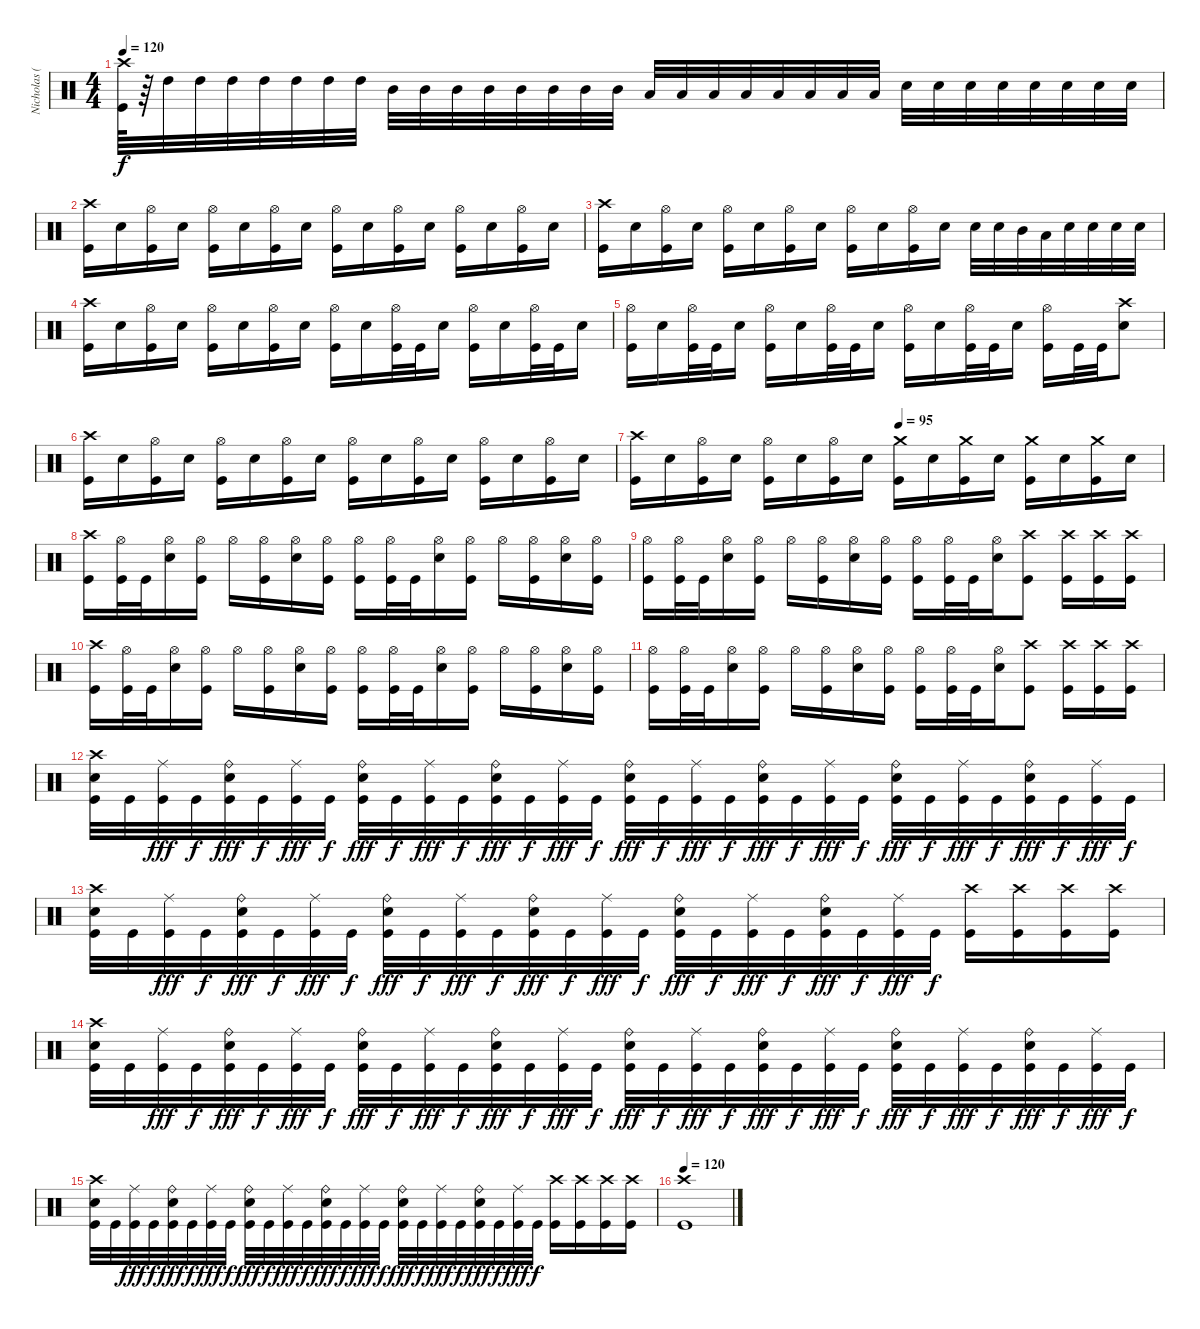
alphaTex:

\track ("Nicholas (Drums)" "Nicholas (") {instrument percussion}
\staff {score}
\articulation defaults
\ts (4 4)
\tempo 120
\clef neutral
\ks c
("Crash high (hit)" "Kick (hit)").64{dy f} r.64{balance 16} "High Tom (hit)".32{balance 0} "High Tom (hit)".32 "High Tom (hit)".32 "High Tom (hit)".32 "High Tom (hit)".32 "High Tom (hit)".32 "High Tom (hit)".32 "Mid Tom (hit)".32 "Mid Tom (hit)".32 "Mid Tom (hit)".32 "Mid Tom (hit)".32 "Mid Tom (hit)".32 "Mid Tom (hit)".32 "Mid Tom (hit)".32 "Mid Tom (hit)".32 "Low Tom (hit)".32 "Low Tom (hit)".32 "Low Tom (hit)".32 "Low Tom (hit)".32 "Low Tom (hit)".32 "Low Tom (hit)".32 "Low Tom (hit)".32 "Low Tom (hit)".32 "Electric Snare (hit)".32{balance 8} "Electric Snare (hit)".32{balance 8} "Electric Snare (hit)".32 "Electric Snare (hit)".32 "Electric Snare (hit)".32 "Electric Snare (hit)".32 "Electric Snare (hit)".32 "Electric Snare (hit)".32 |
("Crash high (hit)" "Kick (hit)").16 "Electric Snare (hit)".16 ("Hi-Hat (open)" "Kick (hit)").16 "Electric Snare (hit)".16 ("Hi-Hat (open)" "Kick (hit)").16 "Electric Snare (hit)".16 ("Hi-Hat (open)" "Kick (hit)").16 "Electric Snare (hit)".16 ("Hi-Hat (open)" "Kick (hit)").16 "Electric Snare (hit)".16 ("Hi-Hat (open)" "Kick (hit)").16 "Electric Snare (hit)".16 ("Hi-Hat (open)" "Kick (hit)").16 "Electric Snare (hit)".16 ("Hi-Hat (open)" "Kick (hit)").16 "Electric Snare (hit)".16 |
("Crash high (hit)" "Kick (hit)").16 "Electric Snare (hit)".16 ("Hi-Hat (open)" "Kick (hit)").16 "Electric Snare (hit)".16 ("Hi-Hat (open)" "Kick (hit)").16 "Electric Snare (hit)".16 ("Hi-Hat (open)" "Kick (hit)").16 "Electric Snare (hit)".16 ("Hi-Hat (open)" "Kick (hit)").16 "Electric Snare (hit)".16 ("Hi-Hat (open)" "Kick (hit)").16 "Electric Snare (hit)".16 "Electric Snare (hit)".32 "Electric Snare (hit)".32 "Mid Tom (hit)".32 "Low Tom (hit)".32 "Electric Snare (hit)".32 "Electric Snare (hit)".32 "Electric Snare (hit)".32 "Electric Snare (hit)".32 |
("Crash high (hit)" "Kick (hit)").16 "Electric Snare (hit)".16 ("Hi-Hat (open)" "Kick (hit)").16 "Electric Snare (hit)".16 ("Hi-Hat (open)" "Kick (hit)").16 "Electric Snare (hit)".16 ("Hi-Hat (open)" "Kick (hit)").16 "Electric Snare (hit)".16 ("Hi-Hat (open)" "Kick (hit)").16 "Electric Snare (hit)".16 ("Hi-Hat (open)" "Kick (hit)").32 "Kick (hit)".32 "Electric Snare (hit)".16 ("Hi-Hat (open)" "Kick (hit)").16 "Electric Snare (hit)".16 ("Hi-Hat (open)" "Kick (hit)").32 "Kick (hit)".32 "Electric Snare (hit)".16 |
("Hi-Hat (open)" "Kick (hit)").16 "Electric Snare (hit)".16 ("Hi-Hat (open)" "Kick (hit)").32 "Kick (hit)".32 "Electric Snare (hit)".16 ("Hi-Hat (open)" "Kick (hit)").16 "Electric Snare (hit)".16 ("Hi-Hat (open)" "Kick (hit)").32 "Kick (hit)".32 "Electric Snare (hit)".16 ("Hi-Hat (open)" "Kick (hit)").16 "Electric Snare (hit)".16 ("Hi-Hat (open)" "Kick (hit)").32 "Kick (hit)".32 "Electric Snare (hit)".16 ("Hi-Hat (open)" "Kick (hit)").16 "Kick (hit)".32 "Kick (hit)".32 ("Crash high (hit)" "Electric Snare (hit)").8 |
("Crash high (hit)" "Kick (hit)").16 "Electric Snare (hit)".16 ("Hi-Hat (open)" "Kick (hit)").16 "Electric Snare (hit)".16 ("Hi-Hat (open)" "Kick (hit)").16 "Electric Snare (hit)".16 ("Hi-Hat (open)" "Kick (hit)").16 "Electric Snare (hit)".16 ("Hi-Hat (open)" "Kick (hit)").16 "Electric Snare (hit)".16 ("Hi-Hat (open)" "Kick (hit)").16 "Electric Snare (hit)".16 ("Hi-Hat (open)" "Kick (hit)").16 "Electric Snare (hit)".16 ("Hi-Hat (open)" "Kick (hit)").16 "Electric Snare (hit)".16 |
\tempo (95 0.5)
("Crash high (hit)" "Kick (hit)").16 "Electric Snare (hit)".16 ("Hi-Hat (open)" "Kick (hit)").16 "Electric Snare (hit)".16 ("Hi-Hat (open)" "Kick (hit)").16 "Electric Snare (hit)".16 ("Hi-Hat (open)" "Kick (hit)").16 "Electric Snare (hit)".16 ("Crash medium (hit)" "Kick (hit)").16 "Electric Snare (hit)".16 ("Crash medium (hit)" "Kick (hit)").16 "Electric Snare (hit)".16 ("Crash medium (hit)" "Kick (hit)").16 "Electric Snare (hit)".16 ("Crash medium (hit)" "Kick (hit)").16 "Electric Snare (hit)".16 |
("Crash high (hit)" "Kick (hit)").16 ("Hi-Hat (open)" "Kick (hit)").32 "Kick (hit)".32 ("Hi-Hat (open)" "Electric Snare (hit)").16 ("Hi-Hat (open)" "Kick (hit)").16 "Hi-Hat (open)".16 ("Hi-Hat (open)" "Kick (hit)").16 ("Hi-Hat (open)" "Electric Snare (hit)").16 ("Hi-Hat (open)" "Kick (hit)").16 ("Hi-Hat (open)" "Kick (hit)").16 ("Hi-Hat (open)" "Kick (hit)").32 "Kick (hit)".32 ("Hi-Hat (open)" "Electric Snare (hit)").16 ("Hi-Hat (open)" "Kick (hit)").16 "Hi-Hat (open)".16 ("Hi-Hat (open)" "Kick (hit)").16 ("Hi-Hat (open)" "Electric Snare (hit)").16 ("Hi-Hat (open)" "Kick (hit)").16 |
("Hi-Hat (open)" "Kick (hit)").16 ("Hi-Hat (open)" "Kick (hit)").32 "Kick (hit)".32 ("Hi-Hat (open)" "Electric Snare (hit)").16 ("Hi-Hat (open)" "Kick (hit)").16 "Hi-Hat (open)".16 ("Hi-Hat (open)" "Kick (hit)").16 ("Hi-Hat (open)" "Electric Snare (hit)").16 ("Hi-Hat (open)" "Kick (hit)").16 ("Hi-Hat (open)" "Kick (hit)").16 ("Hi-Hat (open)" "Kick (hit)").32 "Kick (hit)".32 ("Hi-Hat (open)" "Electric Snare (hit)").16 ("Crash high (hit)" "Kick (hit)").8 ("Crash high (hit)" "Kick (hit)").16 ("Crash high (hit)" "Kick (hit)").16 ("Crash high (hit)" "Kick (hit)").16 |
("Crash high (hit)" "Kick (hit)").16 ("Hi-Hat (open)" "Kick (hit)").32 "Kick (hit)".32 ("Hi-Hat (open)" "Electric Snare (hit)").16 ("Hi-Hat (open)" "Kick (hit)").16 "Hi-Hat (open)".16 ("Hi-Hat (open)" "Kick (hit)").16 ("Hi-Hat (open)" "Electric Snare (hit)").16 ("Hi-Hat (open)" "Kick (hit)").16 ("Hi-Hat (open)" "Kick (hit)").16 ("Hi-Hat (open)" "Kick (hit)").32 "Kick (hit)".32 ("Hi-Hat (open)" "Electric Snare (hit)").16 ("Hi-Hat (open)" "Kick (hit)").16 "Hi-Hat (open)".16 ("Hi-Hat (open)" "Kick (hit)").16 ("Hi-Hat (open)" "Electric Snare (hit)").16 ("Hi-Hat (open)" "Kick (hit)").16 |
("Hi-Hat (open)" "Kick (hit)").16 ("Hi-Hat (open)" "Kick (hit)").32 "Kick (hit)".32 ("Hi-Hat (open)" "Electric Snare (hit)").16 ("Hi-Hat (open)" "Kick (hit)").16 "Hi-Hat (open)".16 ("Hi-Hat (open)" "Kick (hit)").16 ("Hi-Hat (open)" "Electric Snare (hit)").16 ("Hi-Hat (open)" "Kick (hit)").16 ("Hi-Hat (open)" "Kick (hit)").16 ("Hi-Hat (open)" "Kick (hit)").32 "Kick (hit)".32 ("Hi-Hat (open)" "Electric Snare (hit)").16 ("Crash high (hit)" "Kick (hit)").8 ("Crash high (hit)" "Kick (hit)").16 ("Crash high (hit)" "Kick (hit)").16 ("Crash high (hit)" "Kick (hit)").16 |
("Crash high (hit)" "Electric Snare (hit)" "Kick (hit)").32 "Kick (hit)".32 ("Ride (middle)" "Kick (hit)").32{dy fff} "Kick (hit)".32{dy f} ("Ride (bell)" "Electric Snare (hit)" "Kick (hit)").32{dy fff} "Kick (hit)".32{dy f} ("Ride (middle)" "Kick (hit)").32{dy fff} "Kick (hit)".32{dy f} ("Ride (bell)" "Electric Snare (hit)" "Kick (hit)").32{dy fff} "Kick (hit)".32{dy f} ("Ride (middle)" "Kick (hit)").32{dy fff} "Kick (hit)".32{dy f} ("Ride (bell)" "Electric Snare (hit)" "Kick (hit)").32{dy fff} "Kick (hit)".32{dy f} ("Ride (middle)" "Kick (hit)").32{dy fff} "Kick (hit)".32{dy f} ("Ride (bell)" "Electric Snare (hit)" "Kick (hit)").32{dy fff} "Kick (hit)".32{dy f} ("Ride (middle)" "Kick (hit)").32{dy fff} "Kick (hit)".32{dy f} ("Ride (bell)" "Electric Snare (hit)" "Kick (hit)").32{dy fff} "Kick (hit)".32{dy f} ("Ride (middle)" "Kick (hit)").32{dy fff} "Kick (hit)".32{dy f} ("Ride (bell)" "Electric Snare (hit)" "Kick (hit)").32{dy fff} "Kick (hit)".32{dy f} ("Ride (middle)" "Kick (hit)").32{dy fff} "Kick (hit)".32{dy f} ("Ride (bell)" "Electric Snare (hit)" "Kick (hit)").32{dy fff} "Kick (hit)".32{dy f} ("Ride (middle)" "Kick (hit)").32{dy fff} "Kick (hit)".32{dy f} |
("Crash high (hit)" "Electric Snare (hit)" "Kick (hit)").32 "Kick (hit)".32 ("Ride (middle)" "Kick (hit)").32{dy fff} "Kick (hit)".32{dy f} ("Ride (bell)" "Electric Snare (hit)" "Kick (hit)").32{dy fff} "Kick (hit)".32{dy f} ("Ride (middle)" "Kick (hit)").32{dy fff} "Kick (hit)".32{dy f} ("Ride (bell)" "Electric Snare (hit)" "Kick (hit)").32{dy fff} "Kick (hit)".32{dy f} ("Ride (middle)" "Kick (hit)").32{dy fff} "Kick (hit)".32{dy f} ("Ride (bell)" "Electric Snare (hit)" "Kick (hit)").32{dy fff} "Kick (hit)".32{dy f} ("Ride (middle)" "Kick (hit)").32{dy fff} "Kick (hit)".32{dy f} ("Ride (bell)" "Electric Snare (hit)" "Kick (hit)").32{dy fff} "Kick (hit)".32{dy f} ("Ride (middle)" "Kick (hit)").32{dy fff} "Kick (hit)".32{dy f} ("Ride (bell)" "Electric Snare (hit)" "Kick (hit)").32{dy fff} "Kick (hit)".32{dy f} ("Ride (middle)" "Kick (hit)").32{dy fff} "Kick (hit)".32{dy f} ("Crash high (hit)" "Kick (hit)").16 ("Crash high (hit)" "Kick (hit)").16 ("Crash high (hit)" "Kick (hit)").16 ("Crash high (hit)" "Kick (hit)").16 |
("Crash high (hit)" "Electric Snare (hit)" "Kick (hit)").32 "Kick (hit)".32 ("Ride (middle)" "Kick (hit)").32{dy fff} "Kick (hit)".32{dy f} ("Ride (bell)" "Electric Snare (hit)" "Kick (hit)").32{dy fff} "Kick (hit)".32{dy f} ("Ride (middle)" "Kick (hit)").32{dy fff} "Kick (hit)".32{dy f} ("Ride (bell)" "Electric Snare (hit)" "Kick (hit)").32{dy fff} "Kick (hit)".32{dy f} ("Ride (middle)" "Kick (hit)").32{dy fff} "Kick (hit)".32{dy f} ("Ride (bell)" "Electric Snare (hit)" "Kick (hit)").32{dy fff} "Kick (hit)".32{dy f} ("Ride (middle)" "Kick (hit)").32{dy fff} "Kick (hit)".32{dy f} ("Ride (bell)" "Electric Snare (hit)" "Kick (hit)").32{dy fff} "Kick (hit)".32{dy f} ("Ride (middle)" "Kick (hit)").32{dy fff} "Kick (hit)".32{dy f} ("Ride (bell)" "Electric Snare (hit)" "Kick (hit)").32{dy fff} "Kick (hit)".32{dy f} ("Ride (middle)" "Kick (hit)").32{dy fff} "Kick (hit)".32{dy f} ("Ride (bell)" "Electric Snare (hit)" "Kick (hit)").32{dy fff} "Kick (hit)".32{dy f} ("Ride (middle)" "Kick (hit)").32{dy fff} "Kick (hit)".32{dy f} ("Ride (bell)" "Electric Snare (hit)" "Kick (hit)").32{dy fff} "Kick (hit)".32{dy f} ("Ride (middle)" "Kick (hit)").32{dy fff} "Kick (hit)".32{dy f} |
("Crash high (hit)" "Electric Snare (hit)" "Kick (hit)").32 "Kick (hit)".32 ("Ride (middle)" "Kick (hit)").32{dy fff} "Kick (hit)".32{dy f} ("Ride (bell)" "Electric Snare (hit)" "Kick (hit)").32{dy fff} "Kick (hit)".32{dy f} ("Ride (middle)" "Kick (hit)").32{dy fff} "Kick (hit)".32{dy f} ("Ride (bell)" "Electric Snare (hit)" "Kick (hit)").32{dy fff} "Kick (hit)".32{dy f} ("Ride (middle)" "Kick (hit)").32{dy fff} "Kick (hit)".32{dy f} ("Ride (bell)" "Electric Snare (hit)" "Kick (hit)").32{dy fff} "Kick (hit)".32{dy f} ("Ride (middle)" "Kick (hit)").32{dy fff} "Kick (hit)".32{dy f} ("Ride (bell)" "Electric Snare (hit)" "Kick (hit)").32{dy fff} "Kick (hit)".32{dy f} ("Ride (middle)" "Kick (hit)").32{dy fff} "Kick (hit)".32{dy f} ("Ride (bell)" "Electric Snare (hit)" "Kick (hit)").32{dy fff} "Kick (hit)".32{dy f} ("Ride (middle)" "Kick (hit)").32{dy fff} "Kick (hit)".32{dy f} ("Crash high (hit)" "Kick (hit)").16 ("Crash high (hit)" "Kick (hit)").16 ("Crash high (hit)" "Kick (hit)").16 ("Crash high (hit)" "Kick (hit)").16 |
\tempo 120
("Crash high (hit)" "Kick (hit)").1
